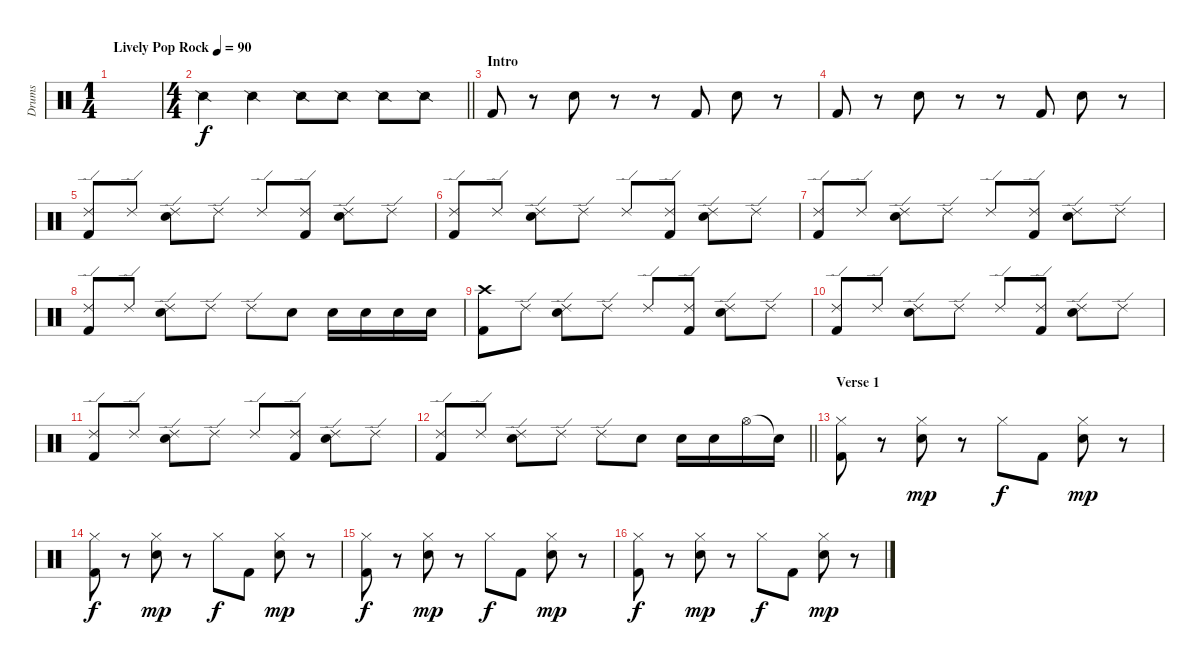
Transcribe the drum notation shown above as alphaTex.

\track ("Drums" "Drums") {instrument percussion}
\staff {score}
\articulation defaults
\ts (1 4)
\tempo (90 "Lively Pop Rock")
\clef neutral
\ks c
|
\ts (4 4)
\barLineRight lightlight "Snare (side stick) 2".4 "Snare (side stick) 2".4 "Snare (side stick) 2".8 "Snare (side stick) 2".8 "Snare (side stick) 2".8 "Snare (side stick) 2".8
|
\section ("" "Intro")
"Kick (hit) 2".8 r.8 "Electric Snare (hit)".8 r.8 r.8 "Kick (hit) 2".8 "Electric Snare (hit)".8 r.8 |
"Kick (hit) 2".8 r.8 "Electric Snare (hit)".8 r.8 r.8 "Kick (hit) 2".8 "Electric Snare (hit)".8 r.8 |
("Ride (edge) 2" "Kick (hit) 2").8 "Ride (edge) 2".8 ("Ride (edge) 2" "Electric Snare (hit)").8 "Ride (edge) 2".8 "Ride (edge) 2".8 ("Ride (edge) 2" "Kick (hit) 2").8 ("Ride (edge) 2" "Electric Snare (hit)").8 "Ride (edge) 2".8 |
("Ride (edge) 2" "Kick (hit) 2").8 "Ride (edge) 2".8 ("Ride (edge) 2" "Electric Snare (hit)").8 "Ride (edge) 2".8 "Ride (edge) 2".8 ("Ride (edge) 2" "Kick (hit) 2").8 ("Ride (edge) 2" "Electric Snare (hit)").8 "Ride (edge) 2".8 |
("Ride (edge) 2" "Kick (hit) 2").8 "Ride (edge) 2".8 ("Ride (edge) 2" "Electric Snare (hit)").8 "Ride (edge) 2".8 "Ride (edge) 2".8 ("Ride (edge) 2" "Kick (hit) 2").8 ("Ride (edge) 2" "Electric Snare (hit)").8 "Ride (edge) 2".8 |
("Ride (edge) 2" "Kick (hit) 2").8 "Ride (edge) 2".8 ("Ride (edge) 2" "Electric Snare (hit)").8 "Ride (edge) 2".8 "Ride (edge) 2".8 "Electric Snare (hit)".8 "Electric Snare (hit)".16 "Electric Snare (hit)".16 "Electric Snare (hit)".16 "Electric Snare (hit)".16 |
("Crash high (hit)" "Kick (hit) 2").8 "Ride (edge) 2".8 ("Ride (edge) 2" "Electric Snare (hit)").8 "Ride (edge) 2".8 "Ride (edge) 2".8 ("Ride (edge) 2" "Kick (hit) 2").8 ("Ride (edge) 2" "Electric Snare (hit)").8 "Ride (edge) 2".8 |
("Ride (edge) 2" "Kick (hit) 2").8 "Ride (edge) 2".8 ("Ride (edge) 2" "Electric Snare (hit)").8 "Ride (edge) 2".8 "Ride (edge) 2".8 ("Ride (edge) 2" "Kick (hit) 2").8 ("Ride (edge) 2" "Electric Snare (hit)").8 "Ride (edge) 2".8 |
("Ride (edge) 2" "Kick (hit) 2").8 "Ride (edge) 2".8 ("Ride (edge) 2" "Electric Snare (hit)").8 "Ride (edge) 2".8 "Ride (edge) 2".8 ("Ride (edge) 2" "Kick (hit) 2").8 ("Ride (edge) 2" "Electric Snare (hit)").8 "Ride (edge) 2".8 |
\barLineRight lightlight
("Ride (edge) 2" "Kick (hit) 2").8 "Ride (edge) 2".8 ("Ride (edge) 2" "Electric Snare (hit)").8 "Ride (edge) 2".8 "Ride (edge) 2".8 "Electric Snare (hit)".8 "Electric Snare (hit)".16 "Electric Snare (hit)".16 "Hi-Hat (open)".16 "Snare (hit)"{t}.16 |
\section ("" "Verse 1")
("Hi-Hat (closed)" "Kick (hit) 2").8 r.8 ("Hi-Hat (closed)" "Electric Snare (hit)").8{dy mp} r.8 "Hi-Hat (closed)".8{dy f} "Kick (hit) 2".8 ("Hi-Hat (closed)" "Electric Snare (hit)").8{dy mp} r.8 |
("Hi-Hat (closed)" "Kick (hit) 2").8{dy f} r.8 ("Hi-Hat (closed)" "Electric Snare (hit)").8{dy mp} r.8 "Hi-Hat (closed)".8{dy f} "Kick (hit) 2".8 ("Hi-Hat (closed)" "Electric Snare (hit)").8{dy mp} r.8 |
("Hi-Hat (closed)" "Kick (hit) 2").8{dy f} r.8 ("Hi-Hat (closed)" "Electric Snare (hit)").8{dy mp} r.8 "Hi-Hat (closed)".8{dy f} "Kick (hit) 2".8 ("Hi-Hat (closed)" "Electric Snare (hit)").8{dy mp} r.8 |
("Hi-Hat (closed)" "Kick (hit) 2").8{dy f} r.8 ("Hi-Hat (closed)" "Electric Snare (hit)").8{dy mp} r.8 "Hi-Hat (closed)".8{dy f} "Kick (hit) 2".8 ("Hi-Hat (closed)" "Electric Snare (hit)").8{dy mp} r.8
